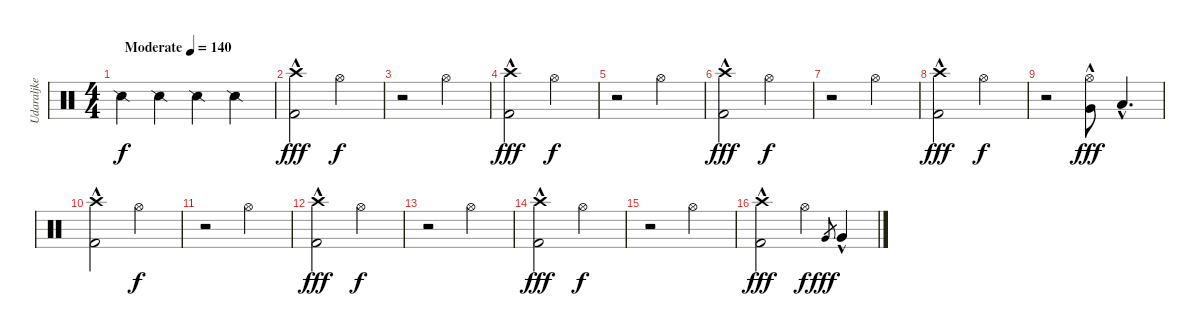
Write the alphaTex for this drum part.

\track ("Udaraljke" "Udaraljke") {instrument percussion}
\staff {score}
\articulation defaults
\ts (4 4)
\tempo (140 "Moderate")
\clef neutral
\ks c "Snare (side stick) 2".4{dy f} "Snare (side stick) 2".4 "Snare (side stick) 2".4 "Snare (side stick) 2".4
|
("Crash high (hit)" "Kick (hit) 2"{hac}).2{dy fff} "Hi-Hat (open)".2{dy f} |
r.2 "Hi-Hat (open)".2 |
("Crash high (hit)" "Kick (hit) 2"{hac}).2{dy fff} "Hi-Hat (open)".2{dy f} |
r.2 "Hi-Hat (open)".2 |
("Crash high (hit)" "Kick (hit) 2"{hac}).2{dy fff} "Hi-Hat (open)".2{dy f} |
r.2 "Hi-Hat (open)".2 |
("Crash high (hit)" "Kick (hit) 2"{hac}).2{dy fff} "Hi-Hat (open)".2{dy f} |
r.2 ("Hi-Hat (open)" "Very Low Tom (hit)"{hac}).8{dy fff} "Low Floor Tom (hit)"{hac}.4{d} |
("Crash high (hit)" "Kick (hit) 2"{hac}).2 "Hi-Hat (open)".2{dy f} |
r.2 "Hi-Hat (open)".2 |
("Crash high (hit)" "Kick (hit) 2"{hac}).2{dy fff} "Hi-Hat (open)".2{dy f} |
r.2 "Hi-Hat (open)".2 |
("Crash high (hit)" "Kick (hit) 2"{hac}).2{dy fff} "Hi-Hat (open)".2{dy f} |
r.2 "Hi-Hat (open)".2 |
("Crash high (hit)" "Kick (hit) 2"{hac}).2{dy fff} "Hi-Hat (open)".4{dy f} "Very Low Tom (hit)".8{gr dy fff} "Very Low Tom (hit)"{hac}.4
